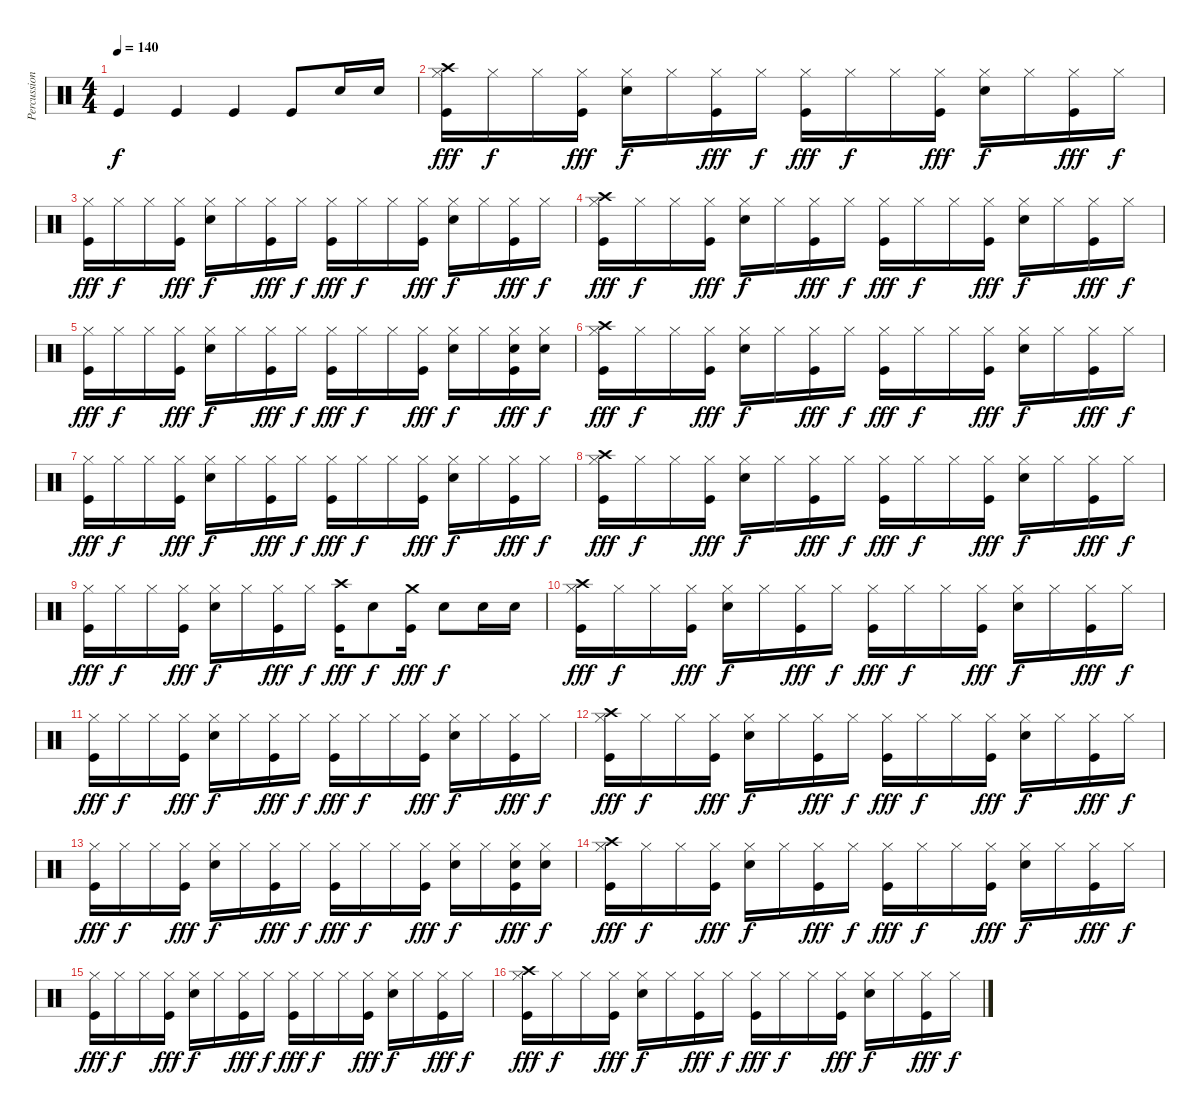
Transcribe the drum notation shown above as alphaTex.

\track ("Percussion" "Percussion") {instrument percussion}
\staff {score}
\articulation defaults
\ts (4 4)
\tempo 140
\clef neutral
\ks c "Kick (hit)".4{dy f} "Kick (hit)".4 "Kick (hit)".4 "Kick (hit)".8 "Snare (hit) 2".16 "Snare (hit) 2".16
|
("Hi-Hat (closed)" "Crash high (hit)" "Kick (hit)").16{dy fff} "Hi-Hat (closed)".16{dy f} "Hi-Hat (closed)".16 ("Hi-Hat (closed)" "Kick (hit)").16{dy fff} ("Hi-Hat (closed)" "Snare (hit) 2").16{dy f} "Hi-Hat (closed)".16 ("Hi-Hat (closed)" "Kick (hit)").16{dy fff} "Hi-Hat (closed)".16{dy f} ("Hi-Hat (closed)" "Kick (hit)").16{dy fff} "Hi-Hat (closed)".16{dy f} "Hi-Hat (closed)".16 ("Hi-Hat (closed)" "Kick (hit)").16{dy fff} ("Hi-Hat (closed)" "Snare (hit) 2").16{dy f} "Hi-Hat (closed)".16 ("Hi-Hat (closed)" "Kick (hit)").16{dy fff} "Hi-Hat (closed)".16{dy f} |
("Hi-Hat (closed)" "Kick (hit)").16{dy fff} "Hi-Hat (closed)".16{dy f} "Hi-Hat (closed)".16 ("Hi-Hat (closed)" "Kick (hit)").16{dy fff} ("Hi-Hat (closed)" "Snare (hit) 2").16{dy f} "Hi-Hat (closed)".16 ("Hi-Hat (closed)" "Kick (hit)").16{dy fff} "Hi-Hat (closed)".16{dy f} ("Hi-Hat (closed)" "Kick (hit)").16{dy fff} "Hi-Hat (closed)".16{dy f} "Hi-Hat (closed)".16 ("Hi-Hat (closed)" "Kick (hit)").16{dy fff} ("Hi-Hat (closed)" "Snare (hit) 2").16{dy f} "Hi-Hat (closed)".16 ("Hi-Hat (closed)" "Kick (hit)").16{dy fff} "Hi-Hat (closed)".16{dy f} |
("Hi-Hat (closed)" "Crash high (hit)" "Kick (hit)").16{dy fff} "Hi-Hat (closed)".16{dy f} "Hi-Hat (closed)".16 ("Hi-Hat (closed)" "Kick (hit)").16{dy fff} ("Hi-Hat (closed)" "Snare (hit) 2").16{dy f} "Hi-Hat (closed)".16 ("Hi-Hat (closed)" "Kick (hit)").16{dy fff} "Hi-Hat (closed)".16{dy f} ("Hi-Hat (closed)" "Kick (hit)").16{dy fff} "Hi-Hat (closed)".16{dy f} "Hi-Hat (closed)".16 ("Hi-Hat (closed)" "Kick (hit)").16{dy fff} ("Hi-Hat (closed)" "Snare (hit) 2").16{dy f} "Hi-Hat (closed)".16 ("Hi-Hat (closed)" "Kick (hit)").16{dy fff} "Hi-Hat (closed)".16{dy f} |
("Hi-Hat (closed)" "Kick (hit)").16{dy fff} "Hi-Hat (closed)".16{dy f} "Hi-Hat (closed)".16 ("Hi-Hat (closed)" "Kick (hit)").16{dy fff} ("Hi-Hat (closed)" "Snare (hit) 2").16{dy f} "Hi-Hat (closed)".16 ("Hi-Hat (closed)" "Kick (hit)").16{dy fff} "Hi-Hat (closed)".16{dy f} ("Hi-Hat (closed)" "Kick (hit)").16{dy fff} "Hi-Hat (closed)".16{dy f} "Hi-Hat (closed)".16 ("Hi-Hat (closed)" "Kick (hit)").16{dy fff} ("Hi-Hat (closed)" "Snare (hit) 2").16{dy f} "Hi-Hat (closed)".16 ("Hi-Hat (closed)" "Snare (hit) 2" "Kick (hit)").16{dy fff} ("Hi-Hat (closed)" "Snare (hit) 2").16{dy f} |
("Hi-Hat (closed)" "Crash high (hit)" "Kick (hit)").16{dy fff} "Hi-Hat (closed)".16{dy f} "Hi-Hat (closed)".16 ("Hi-Hat (closed)" "Kick (hit)").16{dy fff} ("Hi-Hat (closed)" "Snare (hit) 2").16{dy f} "Hi-Hat (closed)".16 ("Hi-Hat (closed)" "Kick (hit)").16{dy fff} "Hi-Hat (closed)".16{dy f} ("Hi-Hat (closed)" "Kick (hit)").16{dy fff} "Hi-Hat (closed)".16{dy f} "Hi-Hat (closed)".16 ("Hi-Hat (closed)" "Kick (hit)").16{dy fff} ("Hi-Hat (closed)" "Snare (hit) 2").16{dy f} "Hi-Hat (closed)".16 ("Hi-Hat (closed)" "Kick (hit)").16{dy fff} "Hi-Hat (closed)".16{dy f} |
("Hi-Hat (closed)" "Kick (hit)").16{dy fff} "Hi-Hat (closed)".16{dy f} "Hi-Hat (closed)".16 ("Hi-Hat (closed)" "Kick (hit)").16{dy fff} ("Hi-Hat (closed)" "Snare (hit) 2").16{dy f} "Hi-Hat (closed)".16 ("Hi-Hat (closed)" "Kick (hit)").16{dy fff} "Hi-Hat (closed)".16{dy f} ("Hi-Hat (closed)" "Kick (hit)").16{dy fff} "Hi-Hat (closed)".16{dy f} "Hi-Hat (closed)".16 ("Hi-Hat (closed)" "Kick (hit)").16{dy fff} ("Hi-Hat (closed)" "Snare (hit) 2").16{dy f} "Hi-Hat (closed)".16 ("Hi-Hat (closed)" "Kick (hit)").16{dy fff} "Hi-Hat (closed)".16{dy f} |
("Hi-Hat (closed)" "Crash high (hit)" "Kick (hit)").16{dy fff} "Hi-Hat (closed)".16{dy f} "Hi-Hat (closed)".16 ("Hi-Hat (closed)" "Kick (hit)").16{dy fff} ("Hi-Hat (closed)" "Snare (hit) 2").16{dy f} "Hi-Hat (closed)".16 ("Hi-Hat (closed)" "Kick (hit)").16{dy fff} "Hi-Hat (closed)".16{dy f} ("Hi-Hat (closed)" "Kick (hit)").16{dy fff} "Hi-Hat (closed)".16{dy f} "Hi-Hat (closed)".16 ("Hi-Hat (closed)" "Kick (hit)").16{dy fff} ("Hi-Hat (closed)" "Snare (hit) 2").16{dy f} "Hi-Hat (closed)".16 ("Hi-Hat (closed)" "Kick (hit)").16{dy fff} "Hi-Hat (closed)".16{dy f} |
("Hi-Hat (closed)" "Kick (hit)").16{dy fff} "Hi-Hat (closed)".16{dy f} "Hi-Hat (closed)".16 ("Hi-Hat (closed)" "Kick (hit)").16{dy fff} ("Hi-Hat (closed)" "Snare (hit) 2").16{dy f} "Hi-Hat (closed)".16 ("Hi-Hat (closed)" "Kick (hit)").16{dy fff} "Hi-Hat (closed)".16{dy f} ("Crash high (hit)" "Kick (hit)").16{dy fff} "Snare (hit) 2".8{dy f} ("Crash medium (hit)" "Kick (hit)").16{dy fff} "Snare (hit) 2".8{dy f} "Snare (hit) 2".16 "Snare (hit) 2".16 |
("Hi-Hat (closed)" "Crash high (hit)" "Kick (hit)").16{dy fff} "Hi-Hat (closed)".16{dy f} "Hi-Hat (closed)".16 ("Hi-Hat (closed)" "Kick (hit)").16{dy fff} ("Hi-Hat (closed)" "Snare (hit) 2").16{dy f} "Hi-Hat (closed)".16 ("Hi-Hat (closed)" "Kick (hit)").16{dy fff} "Hi-Hat (closed)".16{dy f} ("Hi-Hat (closed)" "Kick (hit)").16{dy fff} "Hi-Hat (closed)".16{dy f} "Hi-Hat (closed)".16 ("Hi-Hat (closed)" "Kick (hit)").16{dy fff} ("Hi-Hat (closed)" "Snare (hit) 2").16{dy f} "Hi-Hat (closed)".16 ("Hi-Hat (closed)" "Kick (hit)").16{dy fff} "Hi-Hat (closed)".16{dy f} |
("Hi-Hat (closed)" "Kick (hit)").16{dy fff} "Hi-Hat (closed)".16{dy f} "Hi-Hat (closed)".16 ("Hi-Hat (closed)" "Kick (hit)").16{dy fff} ("Hi-Hat (closed)" "Snare (hit) 2").16{dy f} "Hi-Hat (closed)".16 ("Hi-Hat (closed)" "Kick (hit)").16{dy fff} "Hi-Hat (closed)".16{dy f} ("Hi-Hat (closed)" "Kick (hit)").16{dy fff} "Hi-Hat (closed)".16{dy f} "Hi-Hat (closed)".16 ("Hi-Hat (closed)" "Kick (hit)").16{dy fff} ("Hi-Hat (closed)" "Snare (hit) 2").16{dy f} "Hi-Hat (closed)".16 ("Hi-Hat (closed)" "Kick (hit)").16{dy fff} "Hi-Hat (closed)".16{dy f} |
("Hi-Hat (closed)" "Crash high (hit)" "Kick (hit)").16{dy fff} "Hi-Hat (closed)".16{dy f} "Hi-Hat (closed)".16 ("Hi-Hat (closed)" "Kick (hit)").16{dy fff} ("Hi-Hat (closed)" "Snare (hit) 2").16{dy f} "Hi-Hat (closed)".16 ("Hi-Hat (closed)" "Kick (hit)").16{dy fff} "Hi-Hat (closed)".16{dy f} ("Hi-Hat (closed)" "Kick (hit)").16{dy fff} "Hi-Hat (closed)".16{dy f} "Hi-Hat (closed)".16 ("Hi-Hat (closed)" "Kick (hit)").16{dy fff} ("Hi-Hat (closed)" "Snare (hit) 2").16{dy f} "Hi-Hat (closed)".16 ("Hi-Hat (closed)" "Kick (hit)").16{dy fff} "Hi-Hat (closed)".16{dy f} |
("Hi-Hat (closed)" "Kick (hit)").16{dy fff} "Hi-Hat (closed)".16{dy f} "Hi-Hat (closed)".16 ("Hi-Hat (closed)" "Kick (hit)").16{dy fff} ("Hi-Hat (closed)" "Snare (hit) 2").16{dy f} "Hi-Hat (closed)".16 ("Hi-Hat (closed)" "Kick (hit)").16{dy fff} "Hi-Hat (closed)".16{dy f} ("Hi-Hat (closed)" "Kick (hit)").16{dy fff} "Hi-Hat (closed)".16{dy f} "Hi-Hat (closed)".16 ("Hi-Hat (closed)" "Kick (hit)").16{dy fff} ("Hi-Hat (closed)" "Snare (hit) 2").16{dy f} "Hi-Hat (closed)".16 ("Hi-Hat (closed)" "Snare (hit) 2" "Kick (hit)").16{dy fff} ("Hi-Hat (closed)" "Snare (hit) 2").16{dy f} |
("Hi-Hat (closed)" "Crash high (hit)" "Kick (hit)").16{dy fff} "Hi-Hat (closed)".16{dy f} "Hi-Hat (closed)".16 ("Hi-Hat (closed)" "Kick (hit)").16{dy fff} ("Hi-Hat (closed)" "Snare (hit) 2").16{dy f} "Hi-Hat (closed)".16 ("Hi-Hat (closed)" "Kick (hit)").16{dy fff} "Hi-Hat (closed)".16{dy f} ("Hi-Hat (closed)" "Kick (hit)").16{dy fff} "Hi-Hat (closed)".16{dy f} "Hi-Hat (closed)".16 ("Hi-Hat (closed)" "Kick (hit)").16{dy fff} ("Hi-Hat (closed)" "Snare (hit) 2").16{dy f} "Hi-Hat (closed)".16 ("Hi-Hat (closed)" "Kick (hit)").16{dy fff} "Hi-Hat (closed)".16{dy f} |
("Hi-Hat (closed)" "Kick (hit)").16{dy fff} "Hi-Hat (closed)".16{dy f} "Hi-Hat (closed)".16 ("Hi-Hat (closed)" "Kick (hit)").16{dy fff} ("Hi-Hat (closed)" "Snare (hit) 2").16{dy f} "Hi-Hat (closed)".16 ("Hi-Hat (closed)" "Kick (hit)").16{dy fff} "Hi-Hat (closed)".16{dy f} ("Hi-Hat (closed)" "Kick (hit)").16{dy fff} "Hi-Hat (closed)".16{dy f} "Hi-Hat (closed)".16 ("Hi-Hat (closed)" "Kick (hit)").16{dy fff} ("Hi-Hat (closed)" "Snare (hit) 2").16{dy f} "Hi-Hat (closed)".16 ("Hi-Hat (closed)" "Kick (hit)").16{dy fff} "Hi-Hat (closed)".16{dy f} |
("Hi-Hat (closed)" "Crash high (hit)" "Kick (hit)").16{dy fff} "Hi-Hat (closed)".16{dy f} "Hi-Hat (closed)".16 ("Hi-Hat (closed)" "Kick (hit)").16{dy fff} ("Hi-Hat (closed)" "Snare (hit) 2").16{dy f} "Hi-Hat (closed)".16 ("Hi-Hat (closed)" "Kick (hit)").16{dy fff} "Hi-Hat (closed)".16{dy f} ("Hi-Hat (closed)" "Kick (hit)").16{dy fff} "Hi-Hat (closed)".16{dy f} "Hi-Hat (closed)".16 ("Hi-Hat (closed)" "Kick (hit)").16{dy fff} ("Hi-Hat (closed)" "Snare (hit) 2").16{dy f} "Hi-Hat (closed)".16 ("Hi-Hat (closed)" "Kick (hit)").16{dy fff} "Hi-Hat (closed)".16{dy f}
